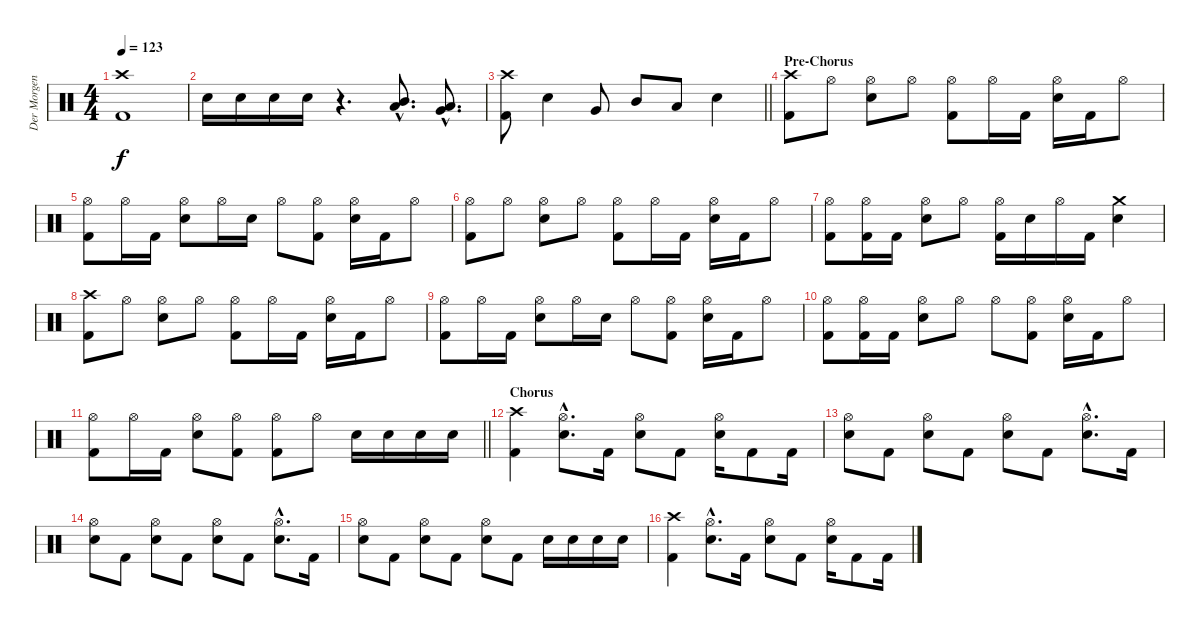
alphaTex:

\track ("Der Morgenstern" "Der Morgen") {instrument percussion}
\staff {score}
\articulation defaults
\ts (4 4)
\tempo 123
\clef neutral
\ks c
("Crash high (hit)" "Kick (hit) 2").1{dy f} |
"Electric Snare (hit)".16 "Electric Snare (hit)".16 "Electric Snare (hit)".16 "Electric Snare (hit)".16 r.4{d} ("Mid Tom (hit)"{hac} "Low Tom (hit)"{hac}).8{d} ("Low Tom (hit)"{hac} "Very Low Tom (hit)"{hac}).8{d} |
\barLineRight lightlight
("Crash high (hit)" "Kick (hit) 2").8 "Electric Snare (hit)".4 "Very Low Tom (hit)".8 "Mid Tom (hit)".8 "Low Tom (hit)".8 "Electric Snare (hit)".4 |
\section ("" "Pre-Chorus")
("Crash high (hit)" "Kick (hit) 2").8 "Hi-Hat (open)".8 ("Hi-Hat (open)" "Electric Snare (hit)").8 "Hi-Hat (open)".8 ("Hi-Hat (open)" "Kick (hit) 2").8 "Hi-Hat (open)".16 "Kick (hit) 2".16 ("Hi-Hat (open)" "Electric Snare (hit)").16 "Kick (hit) 2".16 "Hi-Hat (open)".8 |
("Hi-Hat (open)" "Kick (hit) 2").8 "Hi-Hat (open)".16 "Kick (hit) 2".16 ("Hi-Hat (open)" "Electric Snare (hit)").8 "Hi-Hat (open)".16 "Electric Snare (hit)".16 "Hi-Hat (open)".8 ("Hi-Hat (open)" "Kick (hit) 2").8 ("Hi-Hat (open)" "Electric Snare (hit)").16 "Kick (hit) 2".16 "Hi-Hat (open)".8 |
("Hi-Hat (open)" "Kick (hit) 2").8 "Hi-Hat (open)".8 ("Hi-Hat (open)" "Electric Snare (hit)").8 "Hi-Hat (open)".8 ("Hi-Hat (open)" "Kick (hit) 2").8 "Hi-Hat (open)".16 "Kick (hit) 2".16 ("Hi-Hat (open)" "Electric Snare (hit)").16 "Kick (hit) 2".16 "Hi-Hat (open)".8 |
("Hi-Hat (open)" "Kick (hit) 2").8 ("Hi-Hat (open)" "Kick (hit) 2").16 "Kick (hit) 2".16 ("Hi-Hat (open)" "Electric Snare (hit)").8 "Hi-Hat (open)".8 ("Hi-Hat (open)" "Kick (hit) 2").16 "Electric Snare (hit)".16 "Hi-Hat (open)".16 "Kick (hit) 2".16 ("Crash medium (hit)" "Electric Snare (hit)").4 |
("Crash high (hit)" "Kick (hit) 2").8 "Hi-Hat (open)".8 ("Hi-Hat (open)" "Electric Snare (hit)").8 "Hi-Hat (open)".8 ("Hi-Hat (open)" "Kick (hit) 2").8 "Hi-Hat (open)".16 "Kick (hit) 2".16 ("Hi-Hat (open)" "Electric Snare (hit)").16 "Kick (hit) 2".16 "Hi-Hat (open)".8 |
("Hi-Hat (open)" "Kick (hit) 2").8 "Hi-Hat (open)".16 "Kick (hit) 2".16 ("Hi-Hat (open)" "Electric Snare (hit)").8 "Hi-Hat (open)".16 "Electric Snare (hit)".16 "Hi-Hat (open)".8 ("Hi-Hat (open)" "Kick (hit) 2").8 ("Hi-Hat (open)" "Electric Snare (hit)").16 "Kick (hit) 2".16 "Hi-Hat (open)".8 |
("Hi-Hat (open)" "Kick (hit) 2").8 ("Hi-Hat (open)" "Kick (hit) 2").16 "Kick (hit) 2".16 ("Hi-Hat (open)" "Electric Snare (hit)").8 "Hi-Hat (open)".8 "Hi-Hat (open)".8 ("Hi-Hat (open)" "Kick (hit) 2").8 ("Hi-Hat (open)" "Electric Snare (hit)").16 "Kick (hit) 2".16 "Hi-Hat (open)".8 |
\barLineRight lightlight
("Hi-Hat (open)" "Kick (hit) 2").8 "Hi-Hat (open)".16 "Kick (hit) 2".16 ("Hi-Hat (open)" "Electric Snare (hit)").8 ("Hi-Hat (open)" "Kick (hit) 2").8 ("Hi-Hat (open)" "Kick (hit) 2").8 "Hi-Hat (open)".8 "Electric Snare (hit)".16 "Electric Snare (hit)".16 "Electric Snare (hit)".16 "Electric Snare (hit)".16 |
\section ("" "Chorus")
("Crash high (hit)" "Kick (hit) 2").4 ("Hi-Hat (open)"{hac} "Electric Snare (hit)"{hac}).8{d} "Kick (hit) 2".16 ("Hi-Hat (open)" "Electric Snare (hit)").8 "Kick (hit) 2".8 ("Hi-Hat (open)" "Electric Snare (hit)").16 "Kick (hit) 2".8 "Kick (hit) 2".16 |
("Hi-Hat (open)" "Electric Snare (hit)").8 "Kick (hit) 2".8 ("Hi-Hat (open)" "Electric Snare (hit)").8 "Kick (hit) 2".8 ("Hi-Hat (open)" "Electric Snare (hit)").8 "Kick (hit) 2".8 ("Hi-Hat (open)"{hac} "Electric Snare (hit)"{hac}).8{d} "Kick (hit) 2".16 |
("Hi-Hat (open)" "Electric Snare (hit)").8 "Kick (hit) 2".8 ("Hi-Hat (open)" "Electric Snare (hit)").8 "Kick (hit) 2".8 ("Hi-Hat (open)" "Electric Snare (hit)").8 "Kick (hit) 2".8 ("Hi-Hat (open)"{hac} "Electric Snare (hit)"{hac}).8{d} "Kick (hit) 2".16 |
("Hi-Hat (open)" "Electric Snare (hit)").8 "Kick (hit) 2".8 ("Hi-Hat (open)" "Electric Snare (hit)").8 "Kick (hit) 2".8 ("Hi-Hat (open)" "Electric Snare (hit)").8 "Kick (hit) 2".8 "Electric Snare (hit)".16 "Electric Snare (hit)".16 "Electric Snare (hit)".16 "Electric Snare (hit)".16 |
("Crash high (hit)" "Kick (hit) 2").4 ("Hi-Hat (open)"{hac} "Electric Snare (hit)"{hac}).8{d} "Kick (hit) 2".16 ("Hi-Hat (open)" "Electric Snare (hit)").8 "Kick (hit) 2".8 ("Hi-Hat (open)" "Electric Snare (hit)").16 "Kick (hit) 2".8 "Kick (hit) 2".16
